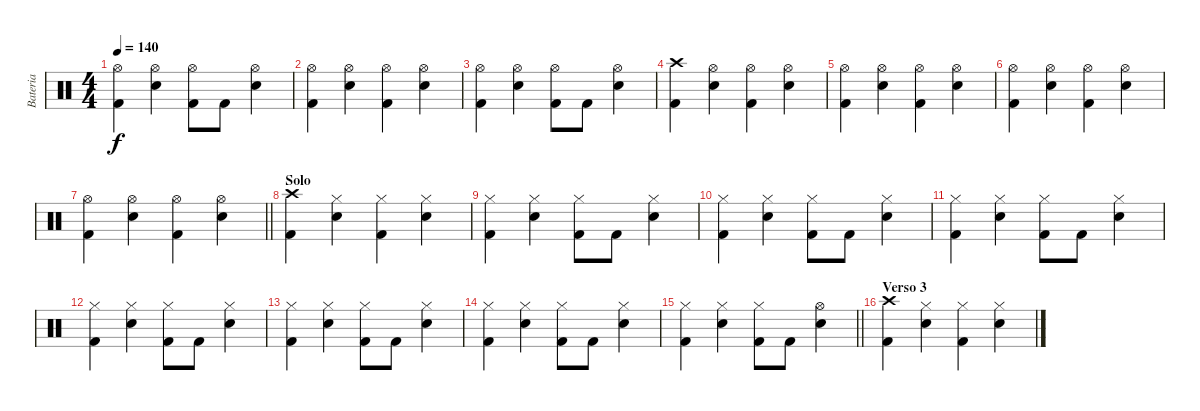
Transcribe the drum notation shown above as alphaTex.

\track ("Bateria" "Bateria") {instrument percussion}
\staff {score}
\articulation defaults
\ts (4 4)
\tempo 140
\clef neutral
\ks c
("Hi-Hat (open)" "Kick (hit) 2").4{dy f} ("Hi-Hat (open)" "Electric Snare (hit)").4 ("Hi-Hat (open)" "Kick (hit) 2").8 "Kick (hit) 2".8 ("Hi-Hat (open)" "Electric Snare (hit)").4 |
("Hi-Hat (open)" "Kick (hit) 2").4 ("Hi-Hat (open)" "Electric Snare (hit)").4 ("Hi-Hat (open)" "Kick (hit) 2").4 ("Hi-Hat (open)" "Electric Snare (hit)").4 |
("Hi-Hat (open)" "Kick (hit) 2").4 ("Hi-Hat (open)" "Electric Snare (hit)").4 ("Hi-Hat (open)" "Kick (hit) 2").8 "Kick (hit) 2".8 ("Hi-Hat (open)" "Electric Snare (hit)").4 |
("Crash high (hit)" "Kick (hit) 2").4 ("Hi-Hat (open)" "Electric Snare (hit)").4 ("Hi-Hat (open)" "Kick (hit) 2").4 ("Hi-Hat (open)" "Electric Snare (hit)").4 |
("Hi-Hat (open)" "Kick (hit) 2").4 ("Hi-Hat (open)" "Electric Snare (hit)").4 ("Hi-Hat (open)" "Kick (hit) 2").4 ("Hi-Hat (open)" "Electric Snare (hit)").4 |
("Hi-Hat (open)" "Kick (hit) 2").4 ("Hi-Hat (open)" "Electric Snare (hit)").4 ("Hi-Hat (open)" "Kick (hit) 2").4 ("Hi-Hat (open)" "Electric Snare (hit)").4 |
\barLineRight lightlight
("Hi-Hat (open)" "Kick (hit) 2").4 ("Hi-Hat (open)" "Electric Snare (hit)").4 ("Hi-Hat (open)" "Kick (hit) 2").4 ("Hi-Hat (open)" "Electric Snare (hit)").4 |
\section ("" "Solo")
("Crash high (hit)" "Kick (hit) 2").4 ("Hi-Hat (closed)" "Electric Snare (hit)").4 ("Hi-Hat (closed)" "Kick (hit) 2").4 ("Hi-Hat (closed)" "Electric Snare (hit)").4 |
("Hi-Hat (closed)" "Kick (hit) 2").4 ("Hi-Hat (closed)" "Electric Snare (hit)").4 ("Hi-Hat (closed)" "Kick (hit) 2").8 "Kick (hit) 2".8 ("Hi-Hat (closed)" "Electric Snare (hit)").4 |
("Hi-Hat (closed)" "Kick (hit) 2").4 ("Hi-Hat (closed)" "Electric Snare (hit)").4 ("Hi-Hat (closed)" "Kick (hit) 2").8 "Kick (hit) 2".8 ("Hi-Hat (closed)" "Electric Snare (hit)").4 |
("Hi-Hat (closed)" "Kick (hit) 2").4 ("Hi-Hat (closed)" "Electric Snare (hit)").4 ("Hi-Hat (closed)" "Kick (hit) 2").8 "Kick (hit) 2".8 ("Hi-Hat (closed)" "Electric Snare (hit)").4 |
("Hi-Hat (closed)" "Kick (hit) 2").4 ("Hi-Hat (closed)" "Electric Snare (hit)").4 ("Hi-Hat (closed)" "Kick (hit) 2").8 "Kick (hit) 2".8 ("Hi-Hat (closed)" "Electric Snare (hit)").4 |
("Hi-Hat (closed)" "Kick (hit) 2").4 ("Hi-Hat (closed)" "Electric Snare (hit)").4 ("Hi-Hat (closed)" "Kick (hit) 2").8 "Kick (hit) 2".8 ("Hi-Hat (closed)" "Electric Snare (hit)").4 |
("Hi-Hat (closed)" "Kick (hit) 2").4 ("Hi-Hat (closed)" "Electric Snare (hit)").4 ("Hi-Hat (closed)" "Kick (hit) 2").8 "Kick (hit) 2".8 ("Hi-Hat (closed)" "Electric Snare (hit)").4 |
\barLineRight lightlight
("Hi-Hat (closed)" "Kick (hit) 2").4 ("Hi-Hat (closed)" "Electric Snare (hit)").4 ("Hi-Hat (closed)" "Kick (hit) 2").8 "Kick (hit) 2".8 ("Hi-Hat (open)" "Electric Snare (hit)").4 |
\section ("" "Verso 3")
("Crash high (hit)" "Kick (hit) 2").4 ("Hi-Hat (closed)" "Electric Snare (hit)").4 ("Hi-Hat (closed)" "Kick (hit) 2").4 ("Hi-Hat (closed)" "Electric Snare (hit)").4
